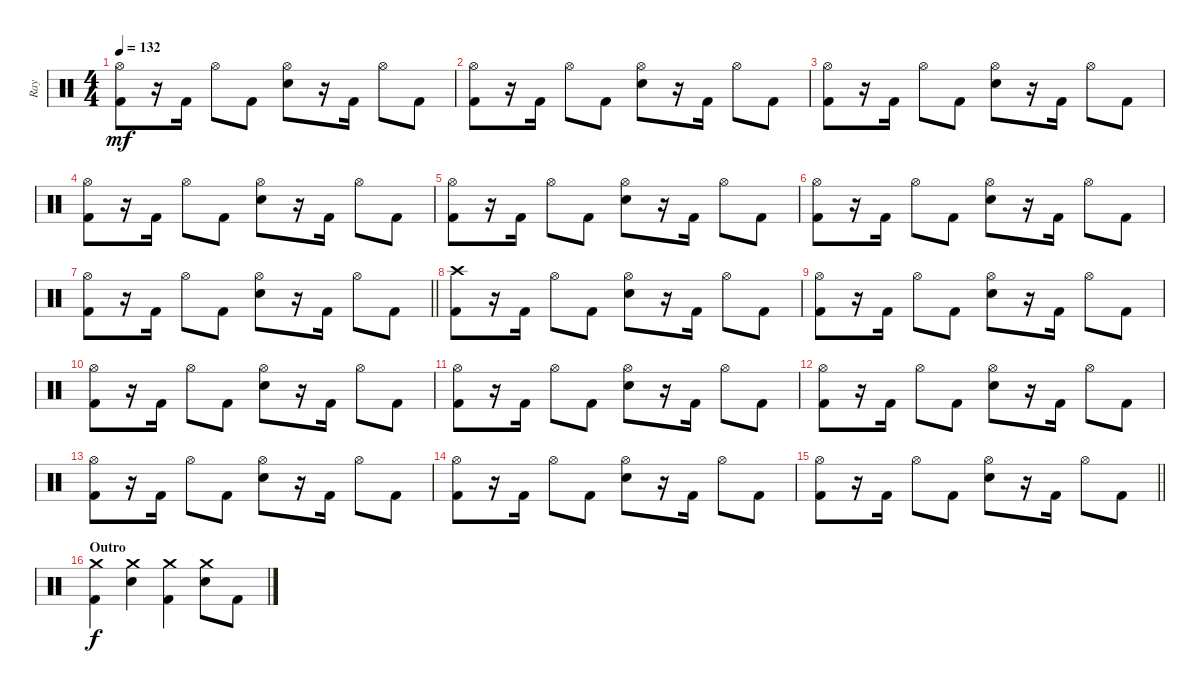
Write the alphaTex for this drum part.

\track ("Ray" "Ray") {instrument percussion}
\staff {score}
\articulation defaults
\ts (4 4)
\tempo 132
\clef neutral
\ks c
("Hi-Hat (open)" "Kick (hit) 2").8{dy mf} r.16 "Kick (hit) 2".16 "Hi-Hat (open)".8 "Kick (hit) 2".8 ("Hi-Hat (open)" "Snare (hit) 2").8 r.16 "Kick (hit) 2".16 "Hi-Hat (open)".8 "Kick (hit) 2".8 |
("Hi-Hat (open)" "Kick (hit) 2").8 r.16 "Kick (hit) 2".16 "Hi-Hat (open)".8 "Kick (hit) 2".8 ("Hi-Hat (open)" "Snare (hit) 2").8 r.16 "Kick (hit) 2".16 "Hi-Hat (open)".8 "Kick (hit) 2".8 |
("Hi-Hat (open)" "Kick (hit) 2").8 r.16 "Kick (hit) 2".16 "Hi-Hat (open)".8 "Kick (hit) 2".8 ("Hi-Hat (open)" "Snare (hit) 2").8 r.16 "Kick (hit) 2".16 "Hi-Hat (open)".8 "Kick (hit) 2".8 |
("Hi-Hat (open)" "Kick (hit) 2").8 r.16 "Kick (hit) 2".16 "Hi-Hat (open)".8 "Kick (hit) 2".8 ("Hi-Hat (open)" "Snare (hit) 2").8 r.16 "Kick (hit) 2".16 "Hi-Hat (open)".8 "Kick (hit) 2".8 |
("Hi-Hat (open)" "Kick (hit) 2").8 r.16 "Kick (hit) 2".16 "Hi-Hat (open)".8 "Kick (hit) 2".8 ("Hi-Hat (open)" "Snare (hit) 2").8 r.16 "Kick (hit) 2".16 "Hi-Hat (open)".8 "Kick (hit) 2".8 |
("Hi-Hat (open)" "Kick (hit) 2").8 r.16 "Kick (hit) 2".16 "Hi-Hat (open)".8 "Kick (hit) 2".8 ("Hi-Hat (open)" "Snare (hit) 2").8 r.16 "Kick (hit) 2".16 "Hi-Hat (open)".8 "Kick (hit) 2".8 |
\barLineRight lightlight
("Hi-Hat (open)" "Kick (hit) 2").8 r.16 "Kick (hit) 2".16 "Hi-Hat (open)".8 "Kick (hit) 2".8 ("Hi-Hat (open)" "Snare (hit) 2").8 r.16 "Kick (hit) 2".16 "Hi-Hat (open)".8 "Kick (hit) 2".8 |
("Crash high (hit)" "Kick (hit) 2").8 r.16 "Kick (hit) 2".16 "Hi-Hat (open)".8 "Kick (hit) 2".8 ("Hi-Hat (open)" "Snare (hit) 2").8 r.16 "Kick (hit) 2".16 "Hi-Hat (open)".8 "Kick (hit) 2".8 |
("Hi-Hat (open)" "Kick (hit) 2").8 r.16 "Kick (hit) 2".16 "Hi-Hat (open)".8 "Kick (hit) 2".8 ("Hi-Hat (open)" "Snare (hit) 2").8 r.16 "Kick (hit) 2".16 "Hi-Hat (open)".8 "Kick (hit) 2".8 |
("Hi-Hat (open)" "Kick (hit) 2").8 r.16 "Kick (hit) 2".16 "Hi-Hat (open)".8 "Kick (hit) 2".8 ("Hi-Hat (open)" "Snare (hit) 2").8 r.16 "Kick (hit) 2".16 "Hi-Hat (open)".8 "Kick (hit) 2".8 |
("Hi-Hat (open)" "Kick (hit) 2").8 r.16 "Kick (hit) 2".16 "Hi-Hat (open)".8 "Kick (hit) 2".8 ("Hi-Hat (open)" "Snare (hit) 2").8 r.16 "Kick (hit) 2".16 "Hi-Hat (open)".8 "Kick (hit) 2".8 |
("Hi-Hat (open)" "Kick (hit) 2").8 r.16 "Kick (hit) 2".16 "Hi-Hat (open)".8 "Kick (hit) 2".8 ("Hi-Hat (open)" "Snare (hit) 2").8 r.16 "Kick (hit) 2".16 "Hi-Hat (open)".8 "Kick (hit) 2".8 |
("Hi-Hat (open)" "Kick (hit) 2").8 r.16 "Kick (hit) 2".16 "Hi-Hat (open)".8 "Kick (hit) 2".8 ("Hi-Hat (open)" "Snare (hit) 2").8 r.16 "Kick (hit) 2".16 "Hi-Hat (open)".8 "Kick (hit) 2".8 |
("Hi-Hat (open)" "Kick (hit) 2").8 r.16 "Kick (hit) 2".16 "Hi-Hat (open)".8 "Kick (hit) 2".8 ("Hi-Hat (open)" "Snare (hit) 2").8 r.16 "Kick (hit) 2".16 "Hi-Hat (open)".8 "Kick (hit) 2".8 |
\barLineRight lightlight
("Hi-Hat (open)" "Kick (hit) 2").8 r.16 "Kick (hit) 2".16 "Hi-Hat (open)".8 "Kick (hit) 2".8 ("Hi-Hat (open)" "Snare (hit) 2").8 r.16 "Kick (hit) 2".16 "Hi-Hat (open)".8 "Kick (hit) 2".8 |
\section ("" "Outro")
("Crash medium (hit)" "Kick (hit) 2").4{dy f} ("Crash medium (hit)" "Snare (hit) 2").4 ("Crash medium (hit)" "Kick (hit) 2").4 ("Crash medium (hit)" "Snare (hit) 2").8 "Kick (hit) 2".8
